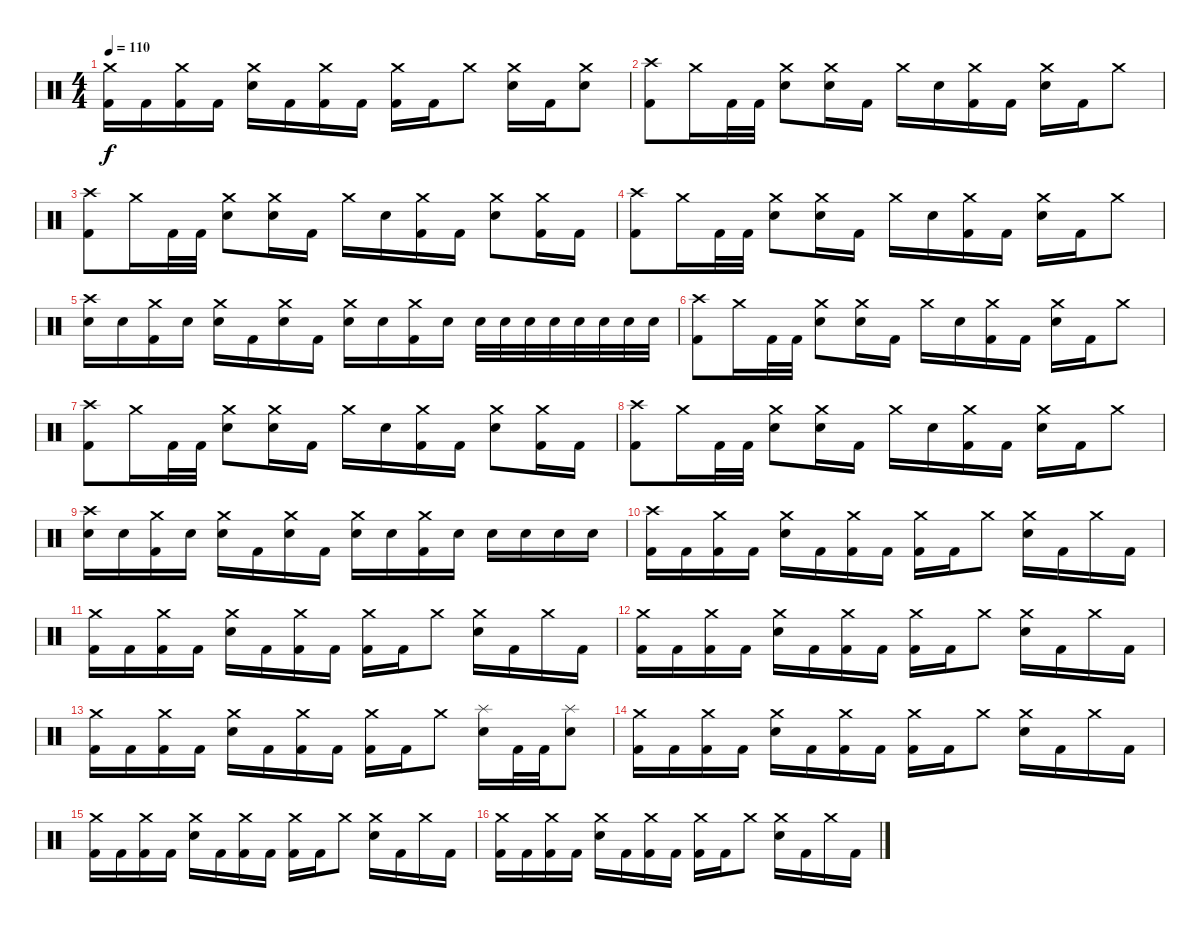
\track "" {instrument percussion}
\staff {score}
\articulation defaults
\ts (4 4)
\tempo 110
\clef neutral
\ks c
("Crash medium (hit)" "Kick (hit) 2").16{dy f} "Kick (hit) 2".16 ("Crash medium (hit)" "Kick (hit) 2").16 "Kick (hit) 2".16 ("Crash medium (hit)" "Electric Snare (hit)").16 "Kick (hit) 2".16 ("Crash medium (hit)" "Kick (hit) 2").16 "Kick (hit) 2".16 ("Crash medium (hit)" "Kick (hit) 2").16 "Kick (hit) 2".16 "Crash medium (hit)".8 ("Crash medium (hit)" "Electric Snare (hit)").16 "Kick (hit) 2".16 ("Crash medium (hit)" "Electric Snare (hit)").8 |
("Crash high (hit)" "Kick (hit) 2").8 "Crash medium (hit)".16 "Kick (hit) 2".32 "Kick (hit) 2".32 ("Crash medium (hit)" "Electric Snare (hit)").8 ("Crash medium (hit)" "Electric Snare (hit)").16 "Kick (hit) 2".16 "Crash medium (hit)".16 "Electric Snare (hit)".16 ("Crash medium (hit)" "Kick (hit) 2").16 "Kick (hit) 2".16 ("Crash medium (hit)" "Electric Snare (hit)").16 "Kick (hit) 2".16 "Crash medium (hit)".8 |
("Crash high (hit)" "Kick (hit) 2").8 "Crash medium (hit)".16 "Kick (hit) 2".32 "Kick (hit) 2".32 ("Crash medium (hit)" "Electric Snare (hit)").8 ("Crash medium (hit)" "Electric Snare (hit)").16 "Kick (hit) 2".16 "Crash medium (hit)".16 "Electric Snare (hit)".16 ("Crash medium (hit)" "Kick (hit) 2").16 "Kick (hit) 2".16 ("Crash medium (hit)" "Electric Snare (hit)").8 ("Crash medium (hit)" "Kick (hit) 2").16 "Kick (hit) 2".16 |
("Crash high (hit)" "Kick (hit) 2").8 "Crash medium (hit)".16 "Kick (hit) 2".32 "Kick (hit) 2".32 ("Crash medium (hit)" "Electric Snare (hit)").8 ("Crash medium (hit)" "Electric Snare (hit)").16 "Kick (hit) 2".16 "Crash medium (hit)".16 "Electric Snare (hit)".16 ("Crash medium (hit)" "Kick (hit) 2").16 "Kick (hit) 2".16 ("Crash medium (hit)" "Electric Snare (hit)").16 "Kick (hit) 2".16 "Crash medium (hit)".8 |
("Crash high (hit)" "Electric Snare (hit)").16 "Electric Snare (hit)".16 ("Crash medium (hit)" "Kick (hit) 2").16 "Electric Snare (hit)".16 ("Crash medium (hit)" "Electric Snare (hit)").16 "Kick (hit) 2".16 ("Crash medium (hit)" "Electric Snare (hit)").16 "Kick (hit) 2".16 ("Crash medium (hit)" "Electric Snare (hit)").16 "Electric Snare (hit)".16 ("Crash medium (hit)" "Kick (hit) 2").16 "Electric Snare (hit)".16 "Electric Snare (hit)".32 "Electric Snare (hit)".32 "Electric Snare (hit)".32 "Electric Snare (hit)".32 "Electric Snare (hit)".32 "Electric Snare (hit)".32 "Electric Snare (hit)".32 "Electric Snare (hit)".32 |
("Crash high (hit)" "Kick (hit) 2").8 "Crash medium (hit)".16 "Kick (hit) 2".32 "Kick (hit) 2".32 ("Crash medium (hit)" "Electric Snare (hit)").8 ("Crash medium (hit)" "Electric Snare (hit)").16 "Kick (hit) 2".16 "Crash medium (hit)".16 "Electric Snare (hit)".16 ("Crash medium (hit)" "Kick (hit) 2").16 "Kick (hit) 2".16 ("Crash medium (hit)" "Electric Snare (hit)").16 "Kick (hit) 2".16 "Crash medium (hit)".8 |
("Crash high (hit)" "Kick (hit) 2").8 "Crash medium (hit)".16 "Kick (hit) 2".32 "Kick (hit) 2".32 ("Crash medium (hit)" "Electric Snare (hit)").8 ("Crash medium (hit)" "Electric Snare (hit)").16 "Kick (hit) 2".16 "Crash medium (hit)".16 "Electric Snare (hit)".16 ("Crash medium (hit)" "Kick (hit) 2").16 "Kick (hit) 2".16 ("Crash medium (hit)" "Electric Snare (hit)").8 ("Crash medium (hit)" "Kick (hit) 2").16 "Kick (hit) 2".16 |
("Crash high (hit)" "Kick (hit) 2").8 "Crash medium (hit)".16 "Kick (hit) 2".32 "Kick (hit) 2".32 ("Crash medium (hit)" "Electric Snare (hit)").8 ("Crash medium (hit)" "Electric Snare (hit)").16 "Kick (hit) 2".16 "Crash medium (hit)".16 "Electric Snare (hit)".16 ("Crash medium (hit)" "Kick (hit) 2").16 "Kick (hit) 2".16 ("Crash medium (hit)" "Electric Snare (hit)").16 "Kick (hit) 2".16 "Crash medium (hit)".8 |
("Crash high (hit)" "Electric Snare (hit)").16 "Electric Snare (hit)".16 ("Crash medium (hit)" "Kick (hit) 2").16 "Electric Snare (hit)".16 ("Crash medium (hit)" "Electric Snare (hit)").16 "Kick (hit) 2".16 ("Crash medium (hit)" "Electric Snare (hit)").16 "Kick (hit) 2".16 ("Crash medium (hit)" "Electric Snare (hit)").16 "Electric Snare (hit)".16 ("Crash medium (hit)" "Kick (hit) 2").16 "Electric Snare (hit)".16 "Electric Snare (hit)".16 "Electric Snare (hit)".16 "Electric Snare (hit)".16 "Electric Snare (hit)".16 |
("Crash high (hit)" "Kick (hit) 2").16 "Kick (hit) 2".16 ("Crash medium (hit)" "Kick (hit) 2").16 "Kick (hit) 2".16 ("Crash medium (hit)" "Electric Snare (hit)").16 "Kick (hit) 2".16 ("Crash medium (hit)" "Kick (hit) 2").16 "Kick (hit) 2".16 ("Crash medium (hit)" "Kick (hit) 2").16 "Kick (hit) 2".16 "Crash medium (hit)".8 ("Crash medium (hit)" "Electric Snare (hit)").16 "Kick (hit) 2".16 "Crash medium (hit)".16 "Kick (hit) 2".16 |
("Crash medium (hit)" "Kick (hit) 2").16 "Kick (hit) 2".16 ("Crash medium (hit)" "Kick (hit) 2").16 "Kick (hit) 2".16 ("Crash medium (hit)" "Electric Snare (hit)").16 "Kick (hit) 2".16 ("Crash medium (hit)" "Kick (hit) 2").16 "Kick (hit) 2".16 ("Crash medium (hit)" "Kick (hit) 2").16 "Kick (hit) 2".16 "Crash medium (hit)".8 ("Crash medium (hit)" "Electric Snare (hit)").16 "Kick (hit) 2".16 "Crash medium (hit)".16 "Kick (hit) 2".16 |
("Crash medium (hit)" "Kick (hit) 2").16 "Kick (hit) 2".16 ("Crash medium (hit)" "Kick (hit) 2").16 "Kick (hit) 2".16 ("Crash medium (hit)" "Electric Snare (hit)").16 "Kick (hit) 2".16 ("Crash medium (hit)" "Kick (hit) 2").16 "Kick (hit) 2".16 ("Crash medium (hit)" "Kick (hit) 2").16 "Kick (hit) 2".16 "Crash medium (hit)".8 ("Crash medium (hit)" "Electric Snare (hit)").16 "Kick (hit) 2".16 "Crash medium (hit)".16 "Kick (hit) 2".16 |
("Crash medium (hit)" "Kick (hit) 2").16 "Kick (hit) 2".16 ("Crash medium (hit)" "Kick (hit) 2").16 "Kick (hit) 2".16 ("Crash medium (hit)" "Electric Snare (hit)").16 "Kick (hit) 2".16 ("Crash medium (hit)" "Kick (hit) 2").16 "Kick (hit) 2".16 ("Crash medium (hit)" "Kick (hit) 2").16 "Kick (hit) 2".16 "Crash medium (hit)".8 ("Splash (hit)" "Electric Snare (hit)").16 "Kick (hit) 2".32 "Kick (hit) 2".32 ("Splash (hit)" "Electric Snare (hit)").8 |
("Crash medium (hit)" "Kick (hit) 2").16 "Kick (hit) 2".16 ("Crash medium (hit)" "Kick (hit) 2").16 "Kick (hit) 2".16 ("Crash medium (hit)" "Electric Snare (hit)").16 "Kick (hit) 2".16 ("Crash medium (hit)" "Kick (hit) 2").16 "Kick (hit) 2".16 ("Crash medium (hit)" "Kick (hit) 2").16 "Kick (hit) 2".16 "Crash medium (hit)".8 ("Crash medium (hit)" "Electric Snare (hit)").16 "Kick (hit) 2".16 "Crash medium (hit)".16 "Kick (hit) 2".16 |
("Crash medium (hit)" "Kick (hit) 2").16 "Kick (hit) 2".16 ("Crash medium (hit)" "Kick (hit) 2").16 "Kick (hit) 2".16 ("Crash medium (hit)" "Electric Snare (hit)").16 "Kick (hit) 2".16 ("Crash medium (hit)" "Kick (hit) 2").16 "Kick (hit) 2".16 ("Crash medium (hit)" "Kick (hit) 2").16 "Kick (hit) 2".16 "Crash medium (hit)".8 ("Crash medium (hit)" "Electric Snare (hit)").16 "Kick (hit) 2".16 "Crash medium (hit)".16 "Kick (hit) 2".16 |
("Crash medium (hit)" "Kick (hit) 2").16 "Kick (hit) 2".16 ("Crash medium (hit)" "Kick (hit) 2").16 "Kick (hit) 2".16 ("Crash medium (hit)" "Electric Snare (hit)").16 "Kick (hit) 2".16 ("Crash medium (hit)" "Kick (hit) 2").16 "Kick (hit) 2".16 ("Crash medium (hit)" "Kick (hit) 2").16 "Kick (hit) 2".16 "Crash medium (hit)".8 ("Crash medium (hit)" "Electric Snare (hit)").16 "Kick (hit) 2".16 "Crash medium (hit)".16 "Kick (hit) 2".16
